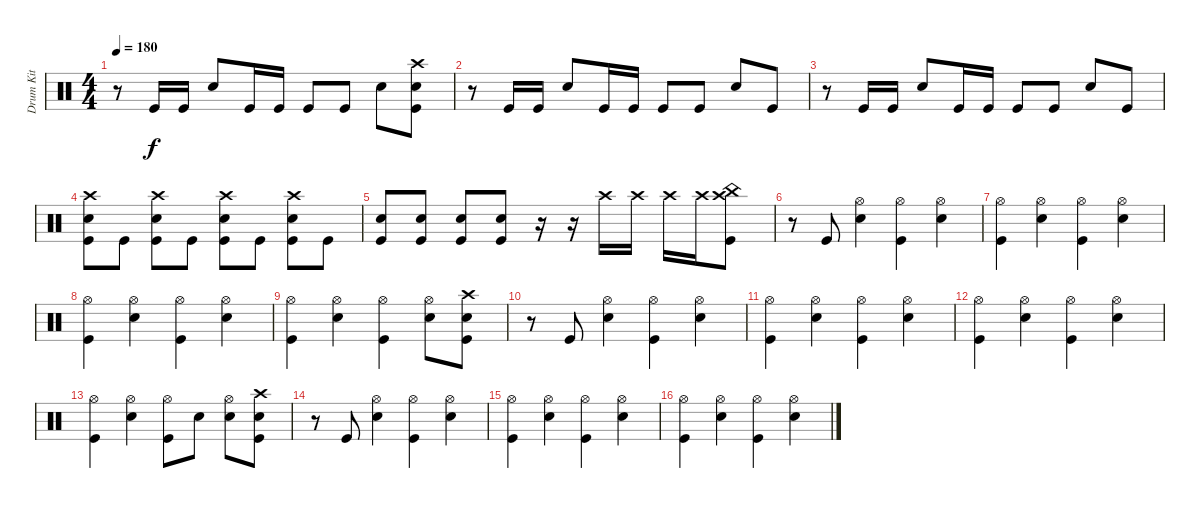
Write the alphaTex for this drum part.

\track ("Drum Kit" "Drum Kit") {instrument percussion}
\staff {score}
\articulation defaults
\ts (4 4)
\tempo 180
\clef neutral
\ks c
r.8{dy f} "Kick (hit)".16 "Kick (hit)".16 "Snare (hit) 2".8 "Kick (hit)".16 "Kick (hit)".16 "Kick (hit)".8 "Kick (hit)".8 "Snare (hit) 2".8 ("Kick (hit)" "Snare (hit) 2" "Crash high (hit)").8 |
r.8 "Kick (hit)".16 "Kick (hit)".16 "Snare (hit) 2".8 "Kick (hit)".16 "Kick (hit)".16 "Kick (hit)".8 "Kick (hit)".8 "Snare (hit) 2".8 "Kick (hit)".8 |
r.8 "Kick (hit)".16 "Kick (hit)".16 "Snare (hit) 2".8 "Kick (hit)".16 "Kick (hit)".16 "Kick (hit)".8 "Kick (hit)".8 "Snare (hit) 2".8 "Kick (hit)".8 |
("Snare (hit) 2" "Kick (hit)" "Crash high (hit)").8 "Kick (hit)".8 ("Snare (hit) 2" "Kick (hit)" "Crash high (hit)").8 "Kick (hit)".8 ("Snare (hit) 2" "Kick (hit)" "Crash high (hit)").8 "Kick (hit)".8 ("Snare (hit) 2" "Kick (hit)" "Crash high (hit)").8 "Kick (hit)".8 |
("Snare (hit) 2" "Kick (hit)").8 ("Snare (hit) 2" "Kick (hit)").8 ("Snare (hit) 2" "Kick (hit)").8 ("Snare (hit) 2" "Kick (hit)").8 r.16{volume 3} r.16{volume 12} "Crash high (hit)".16 "Crash high (hit)".16 "Crash high (hit)".16 "Crash high (hit)".16 ("Kick (hit)" "Crash high (hit)" "China (hit)").8 |
r.8 "Kick (hit)".8 ("Snare (hit) 2" "Hi-Hat (open)").4 ("Kick (hit)" "Hi-Hat (open)").4 ("Snare (hit) 2" "Hi-Hat (open)").4 |
("Kick (hit)" "Hi-Hat (open)").4 ("Snare (hit) 2" "Hi-Hat (open)").4 ("Kick (hit)" "Hi-Hat (open)").4 ("Snare (hit) 2" "Hi-Hat (open)").4 |
("Kick (hit)" "Hi-Hat (open)").4 ("Snare (hit) 2" "Hi-Hat (open)").4 ("Kick (hit)" "Hi-Hat (open)").4 ("Snare (hit) 2" "Hi-Hat (open)").4 |
("Kick (hit)" "Hi-Hat (open)").4 ("Snare (hit) 2" "Hi-Hat (open)").4 ("Kick (hit)" "Hi-Hat (open)").4 ("Snare (hit) 2" "Hi-Hat (open)").8 ("Snare (hit) 2" "Crash high (hit)" "Kick (hit)").8 |
r.8 "Kick (hit)".8 ("Snare (hit) 2" "Hi-Hat (open)").4 ("Kick (hit)" "Hi-Hat (open)").4 ("Snare (hit) 2" "Hi-Hat (open)").4 |
("Kick (hit)" "Hi-Hat (open)").4 ("Snare (hit) 2" "Hi-Hat (open)").4 ("Kick (hit)" "Hi-Hat (open)").4 ("Snare (hit) 2" "Hi-Hat (open)").4 |
("Kick (hit)" "Hi-Hat (open)").4 ("Snare (hit) 2" "Hi-Hat (open)").4 ("Kick (hit)" "Hi-Hat (open)").4 ("Snare (hit) 2" "Hi-Hat (open)").4 |
("Kick (hit)" "Hi-Hat (open)").4 ("Snare (hit) 2" "Hi-Hat (open)").4 ("Kick (hit)" "Hi-Hat (open)").8 "Snare (hit) 2".8 ("Snare (hit) 2" "Hi-Hat (open)").8 ("Snare (hit) 2" "Crash high (hit)" "Kick (hit)").8 |
r.8 "Kick (hit)".8 ("Snare (hit) 2" "Hi-Hat (open)").4 ("Kick (hit)" "Hi-Hat (open)").4 ("Snare (hit) 2" "Hi-Hat (open)").4 |
("Kick (hit)" "Hi-Hat (open)").4 ("Snare (hit) 2" "Hi-Hat (open)").4 ("Kick (hit)" "Hi-Hat (open)").4 ("Snare (hit) 2" "Hi-Hat (open)").4 |
("Kick (hit)" "Hi-Hat (open)").4 ("Snare (hit) 2" "Hi-Hat (open)").4 ("Kick (hit)" "Hi-Hat (open)").4 ("Snare (hit) 2" "Hi-Hat (open)").4
